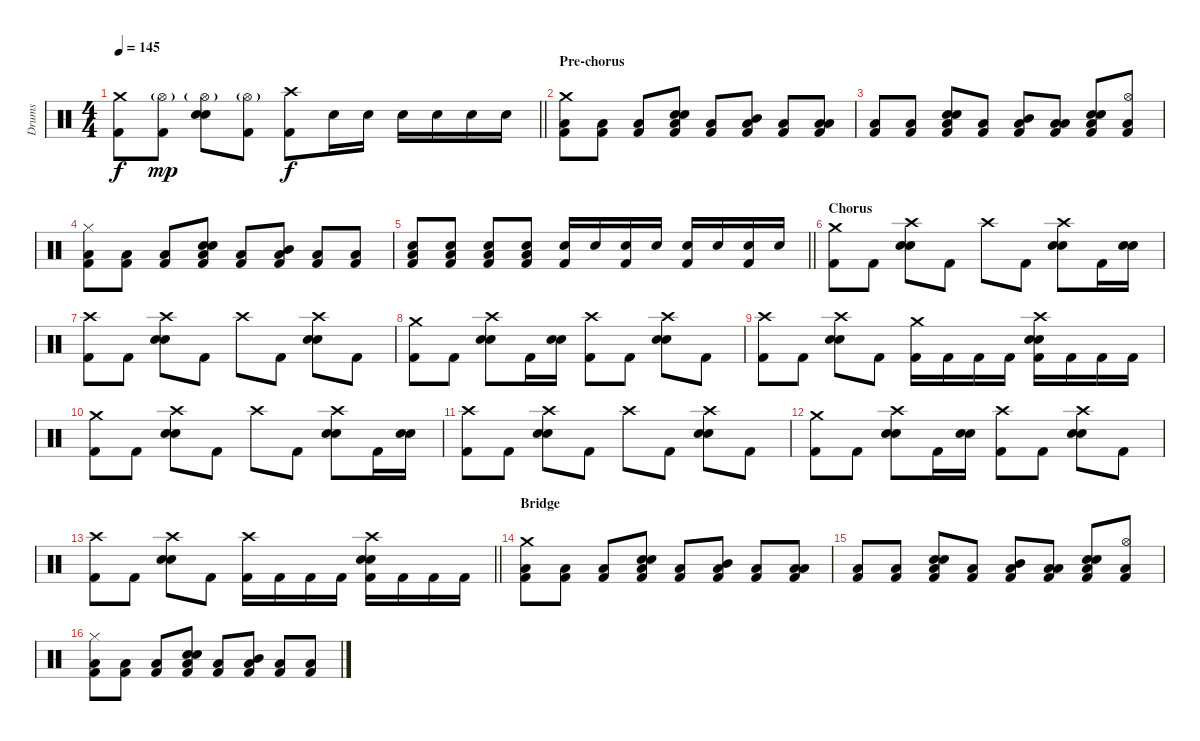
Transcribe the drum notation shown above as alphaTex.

\track ("Drums" "Drums") {instrument percussion}
\staff {score}
\articulation defaults
\ts (4 4)
\tempo 145
\clef neutral
\barLineRight lightlight
\ks c
("Crash medium (hit)" "Kick (hit) 2").8{dy f} ("Hi-Hat (open)"{g} "Kick (hit) 2").8{dy mp} ("Hi-Hat (open)"{g} "Electric Snare (hit)" "Electric Snare (hit)").8 ("Hi-Hat (open)"{g} "Kick (hit) 2").8 ("Crash high (hit)" "Kick (hit) 2").8{dy f} "Electric Snare (hit)".16 "Electric Snare (hit)".16 "Electric Snare (hit)".16 "Electric Snare (hit)".16 "Electric Snare (hit)".16 "Electric Snare (hit)".16 |
\section ("" "Pre-chorus")
("Crash medium (hit)" "Low Floor Tom (hit)" "Kick (hit) 2").8 ("Low Floor Tom (hit)" "Kick (hit) 2").8 ("Low Floor Tom (hit)" "Kick (hit) 2").8 ("Electric Snare (hit)" "Electric Snare (hit)" "Low Floor Tom (hit)" "Kick (hit) 2").8 ("Low Floor Tom (hit)" "Kick (hit) 2").8 ("Mid Tom (hit)" "Low Floor Tom (hit)" "Kick (hit) 2").8 ("Low Floor Tom (hit)" "Kick (hit) 2").8 ("Low Tom (hit)" "Low Floor Tom (hit)" "Kick (hit) 2").8 |
("Low Floor Tom (hit)" "Kick (hit) 2").8 ("Low Floor Tom (hit)" "Kick (hit) 2").8 ("Electric Snare (hit)" "Electric Snare (hit)" "Low Floor Tom (hit)" "Kick (hit) 2").8 ("Low Floor Tom (hit)" "Kick (hit) 2").8 ("Mid Tom (hit)" "Low Floor Tom (hit)" "Kick (hit) 2").8 ("Low Tom (hit)" "Low Floor Tom (hit)" "Kick (hit) 2").8 ("Electric Snare (hit)" "Electric Snare (hit)" "Low Floor Tom (hit)" "Kick (hit) 2").8 ("Hi-Hat (open)" "Low Floor Tom (hit)" "Kick (hit) 2").8 |
("Hi-Hat (closed)" "Low Floor Tom (hit)" "Kick (hit) 2").8 ("Low Floor Tom (hit)" "Kick (hit) 2").8 ("Low Floor Tom (hit)" "Kick (hit) 2").8 ("Electric Snare (hit)" "Electric Snare (hit)" "Low Floor Tom (hit)" "Kick (hit) 2").8 ("Low Floor Tom (hit)" "Kick (hit) 2").8 ("Mid Tom (hit)" "Low Floor Tom (hit)" "Kick (hit) 2").8 ("Low Floor Tom (hit)" "Kick (hit) 2").8 ("Low Floor Tom (hit)" "Kick (hit) 2").8 |
\barLineRight lightlight
("Electric Snare (hit)" "Low Floor Tom (hit)" "Kick (hit) 2").8 ("Electric Snare (hit)" "Low Floor Tom (hit)" "Kick (hit) 2").8 ("Electric Snare (hit)" "Low Floor Tom (hit)" "Kick (hit) 2").8 ("Electric Snare (hit)" "Low Floor Tom (hit)" "Kick (hit) 2").8 ("Electric Snare (hit)" "Kick (hit) 2").16 "Electric Snare (hit)".16 ("Electric Snare (hit)" "Kick (hit) 2").16 "Electric Snare (hit)".16 ("Electric Snare (hit)" "Kick (hit) 2").16 "Electric Snare (hit)".16 ("Electric Snare (hit)" "Kick (hit) 2").16 "Electric Snare (hit)".16 |
\section ("" "Chorus")
("Crash medium (hit)" "Kick (hit) 2").8 "Kick (hit) 2".8 ("Crash high (hit)" "Electric Snare (hit)" "Electric Snare (hit)").8 "Kick (hit) 2".8 "Crash high (hit)".8 "Kick (hit) 2".8 ("Crash high (hit)" "Electric Snare (hit)" "Electric Snare (hit)").8 "Kick (hit) 2".16 ("Electric Snare (hit)" "Electric Snare (hit)").16 |
("Crash high (hit)" "Kick (hit) 2").8 "Kick (hit) 2".8 ("Crash high (hit)" "Electric Snare (hit)" "Electric Snare (hit)").8 "Kick (hit) 2".8 "Crash high (hit)".8 "Kick (hit) 2".8 ("Crash high (hit)" "Electric Snare (hit)" "Electric Snare (hit)").8 "Kick (hit) 2".8 |
("Crash medium (hit)" "Kick (hit) 2").8 "Kick (hit) 2".8 ("Crash high (hit)" "Electric Snare (hit)" "Electric Snare (hit)").8 "Kick (hit) 2".16 ("Electric Snare (hit)" "Electric Snare (hit)").16 ("Crash high (hit)" "Kick (hit) 2").8 "Kick (hit) 2".8 ("Crash high (hit)" "Electric Snare (hit)" "Electric Snare (hit)").8 "Kick (hit) 2".8 |
("Crash high (hit)" "Kick (hit) 2").8 "Kick (hit) 2".8 ("Crash high (hit)" "Electric Snare (hit)" "Electric Snare (hit)").8 "Kick (hit) 2".8 ("Crash medium (hit)" "Kick (hit) 2").16 "Kick (hit) 2".16 "Kick (hit) 2".16 "Kick (hit) 2".16 ("Crash high (hit)" "Electric Snare (hit)" "Electric Snare (hit)" "Kick (hit) 2").16 "Kick (hit) 2".16 "Kick (hit) 2".16 "Kick (hit) 2".16 |
("Crash medium (hit)" "Kick (hit) 2").8 "Kick (hit) 2".8 ("Crash high (hit)" "Electric Snare (hit)" "Electric Snare (hit)").8 "Kick (hit) 2".8 "Crash high (hit)".8 "Kick (hit) 2".8 ("Crash high (hit)" "Electric Snare (hit)" "Electric Snare (hit)").8 "Kick (hit) 2".16 ("Electric Snare (hit)" "Electric Snare (hit)").16 |
("Crash high (hit)" "Kick (hit) 2").8 "Kick (hit) 2".8 ("Crash high (hit)" "Electric Snare (hit)" "Electric Snare (hit)").8 "Kick (hit) 2".8 "Crash high (hit)".8 "Kick (hit) 2".8 ("Crash high (hit)" "Electric Snare (hit)" "Electric Snare (hit)").8 "Kick (hit) 2".8 |
("Crash medium (hit)" "Kick (hit) 2").8 "Kick (hit) 2".8 ("Crash high (hit)" "Electric Snare (hit)" "Electric Snare (hit)").8 "Kick (hit) 2".16 ("Electric Snare (hit)" "Electric Snare (hit)").16 ("Crash high (hit)" "Kick (hit) 2").8 "Kick (hit) 2".8 ("Crash high (hit)" "Electric Snare (hit)" "Electric Snare (hit)").8 "Kick (hit) 2".8 |
\barLineRight lightlight
("Crash high (hit)" "Kick (hit) 2").8 "Kick (hit) 2".8 ("Crash high (hit)" "Electric Snare (hit)" "Electric Snare (hit)").8 "Kick (hit) 2".8 ("Crash high (hit)" "Kick (hit) 2").16 "Kick (hit) 2".16 "Kick (hit) 2".16 "Kick (hit) 2".16 ("Crash high (hit)" "Electric Snare (hit)" "Electric Snare (hit)" "Kick (hit) 2").16 "Kick (hit) 2".16 "Kick (hit) 2".16 "Kick (hit) 2".16 |
\section ("" "Bridge")
("Crash medium (hit)" "Low Floor Tom (hit)" "Kick (hit) 2").8 ("Low Floor Tom (hit)" "Kick (hit) 2").8 ("Low Floor Tom (hit)" "Kick (hit) 2").8 ("Electric Snare (hit)" "Electric Snare (hit)" "Low Floor Tom (hit)" "Kick (hit) 2").8 ("Low Floor Tom (hit)" "Kick (hit) 2").8 ("Mid Tom (hit)" "Low Floor Tom (hit)" "Kick (hit) 2").8 ("Low Floor Tom (hit)" "Kick (hit) 2").8 ("Low Tom (hit)" "Low Floor Tom (hit)" "Kick (hit) 2").8 |
("Low Floor Tom (hit)" "Kick (hit) 2").8 ("Low Floor Tom (hit)" "Kick (hit) 2").8 ("Electric Snare (hit)" "Electric Snare (hit)" "Low Floor Tom (hit)" "Kick (hit) 2").8 ("Low Floor Tom (hit)" "Kick (hit) 2").8 ("Mid Tom (hit)" "Low Floor Tom (hit)" "Kick (hit) 2").8 ("Low Tom (hit)" "Low Floor Tom (hit)" "Kick (hit) 2").8 ("Electric Snare (hit)" "Electric Snare (hit)" "Low Floor Tom (hit)" "Kick (hit) 2").8 ("Hi-Hat (open)" "Low Floor Tom (hit)" "Kick (hit) 2").8 |
("Hi-Hat (closed)" "Low Floor Tom (hit)" "Kick (hit) 2").8 ("Low Floor Tom (hit)" "Kick (hit) 2").8 ("Low Floor Tom (hit)" "Kick (hit) 2").8 ("Electric Snare (hit)" "Electric Snare (hit)" "Low Floor Tom (hit)" "Kick (hit) 2").8 ("Low Floor Tom (hit)" "Kick (hit) 2").8 ("Mid Tom (hit)" "Low Floor Tom (hit)" "Kick (hit) 2").8 ("Low Floor Tom (hit)" "Kick (hit) 2").8 ("Low Floor Tom (hit)" "Kick (hit) 2").8
